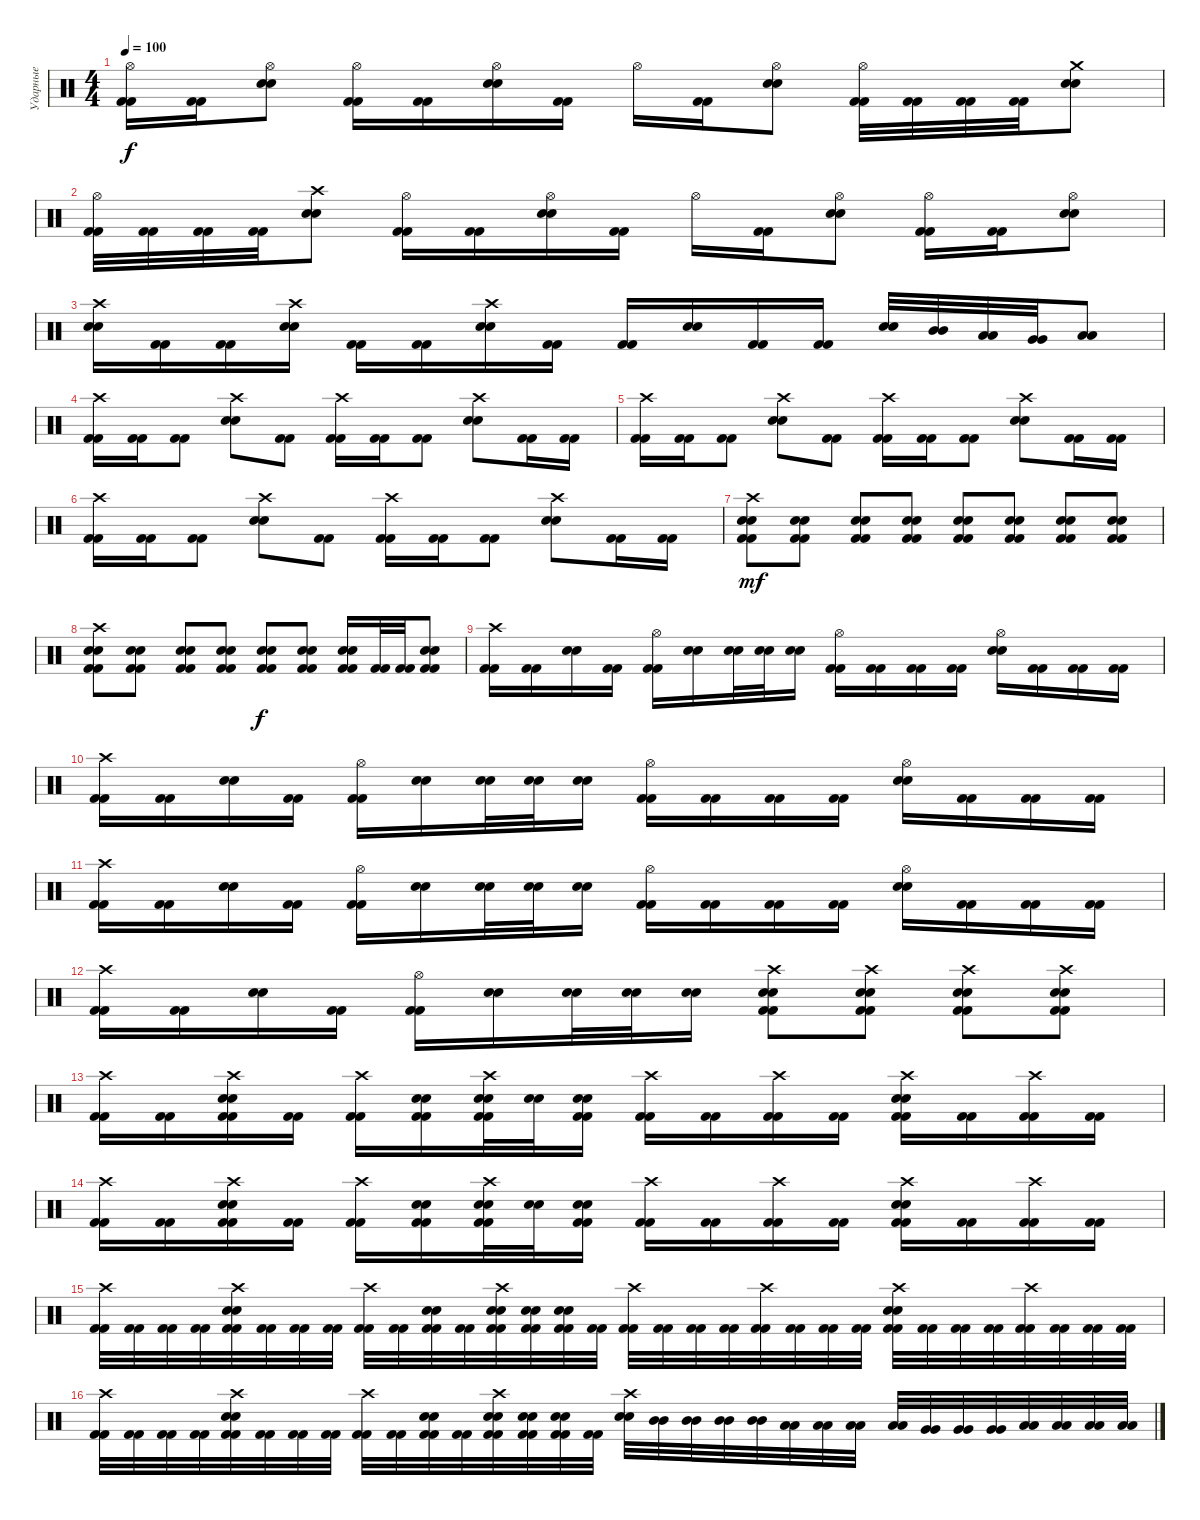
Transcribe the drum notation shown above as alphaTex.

\track ("Ударные" "Ударные") {instrument percussion}
\staff {score}
\articulation defaults
\ts (4 4)
\tempo 100
\clef neutral
\ks c
("Hi-Hat (open)" "Kick (hit) 2" "Kick (hit) 2").16{dy f} ("Kick (hit) 2" "Kick (hit) 2").16 ("Hi-Hat (open)" "Electric Snare (hit)" "Electric Snare (hit)").8 ("Hi-Hat (open)" "Kick (hit) 2" "Kick (hit) 2").16 ("Kick (hit) 2" "Kick (hit) 2").16 ("Hi-Hat (open)" "Electric Snare (hit)" "Electric Snare (hit)").16 ("Kick (hit) 2" "Kick (hit) 2").16 "Hi-Hat (open)".16 ("Kick (hit) 2" "Kick (hit) 2").16 ("Hi-Hat (open)" "Electric Snare (hit)" "Electric Snare (hit)").8 ("Hi-Hat (open)" "Kick (hit) 2" "Kick (hit) 2").32 ("Kick (hit) 2" "Kick (hit) 2").32 ("Kick (hit) 2" "Kick (hit) 2").32 ("Kick (hit) 2" "Kick (hit) 2").32 ("Crash medium (hit)" "Electric Snare (hit)" "Electric Snare (hit)").8 |
("Hi-Hat (open)" "Kick (hit) 2" "Kick (hit) 2").32 ("Kick (hit) 2" "Kick (hit) 2").32 ("Kick (hit) 2" "Kick (hit) 2").32 ("Kick (hit) 2" "Kick (hit) 2").32 ("Crash high (hit)" "Electric Snare (hit)" "Electric Snare (hit)").8 ("Hi-Hat (open)" "Kick (hit) 2" "Kick (hit) 2").16 ("Kick (hit) 2" "Kick (hit) 2").16 ("Hi-Hat (open)" "Electric Snare (hit)" "Electric Snare (hit)").16 ("Kick (hit) 2" "Kick (hit) 2").16 "Hi-Hat (open)".16 ("Kick (hit) 2" "Kick (hit) 2").16 ("Hi-Hat (open)" "Electric Snare (hit)" "Electric Snare (hit)").8 ("Hi-Hat (open)" "Kick (hit) 2" "Kick (hit) 2").16 ("Kick (hit) 2" "Kick (hit) 2").16 ("Hi-Hat (open)" "Electric Snare (hit)" "Electric Snare (hit)").8 |
("Crash high (hit)" "Electric Snare (hit)" "Electric Snare (hit)").16 ("Kick (hit) 2" "Kick (hit) 2").16 ("Kick (hit) 2" "Kick (hit) 2").16 ("Crash high (hit)" "Electric Snare (hit)" "Electric Snare (hit)").16 ("Kick (hit) 2" "Kick (hit) 2").16 ("Kick (hit) 2" "Kick (hit) 2").16 ("Crash high (hit)" "Electric Snare (hit)" "Electric Snare (hit)").16 ("Kick (hit) 2" "Kick (hit) 2").16 ("Kick (hit) 2" "Kick (hit) 2").16 ("Electric Snare (hit)" "Electric Snare (hit)").16 ("Kick (hit) 2" "Kick (hit) 2").16 ("Kick (hit) 2" "Kick (hit) 2").16 ("Electric Snare (hit)" "Electric Snare (hit)").32 ("Mid Tom (hit)" "Mid Tom (hit)").32 ("Low Tom (hit)" "Low Tom (hit)").32 ("Very Low Tom (hit)" "Very Low Tom (hit)").32 ("Low Floor Tom (hit)" "Low Floor Tom (hit)").8 |
("Crash high (hit)" "Kick (hit) 2" "Kick (hit) 2").16 ("Kick (hit) 2" "Kick (hit) 2").16 ("Kick (hit) 2" "Kick (hit) 2").8 ("Crash high (hit)" "Electric Snare (hit)" "Electric Snare (hit)").8 ("Kick (hit) 2" "Kick (hit) 2").8 ("Crash high (hit)" "Kick (hit) 2" "Kick (hit) 2").16 ("Kick (hit) 2" "Kick (hit) 2").16 ("Kick (hit) 2" "Kick (hit) 2").8 ("Crash high (hit)" "Electric Snare (hit)" "Electric Snare (hit)").8 ("Kick (hit) 2" "Kick (hit) 2").16 ("Kick (hit) 2" "Kick (hit) 2").16 |
("Crash high (hit)" "Kick (hit) 2" "Kick (hit) 2").16 ("Kick (hit) 2" "Kick (hit) 2").16 ("Kick (hit) 2" "Kick (hit) 2").8 ("Crash high (hit)" "Electric Snare (hit)" "Electric Snare (hit)").8 ("Kick (hit) 2" "Kick (hit) 2").8 ("Crash high (hit)" "Kick (hit) 2" "Kick (hit) 2").16 ("Kick (hit) 2" "Kick (hit) 2").16 ("Kick (hit) 2" "Kick (hit) 2").8 ("Crash high (hit)" "Electric Snare (hit)" "Electric Snare (hit)").8 ("Kick (hit) 2" "Kick (hit) 2").16 ("Kick (hit) 2" "Kick (hit) 2").16 |
("Crash high (hit)" "Kick (hit) 2" "Kick (hit) 2").16 ("Kick (hit) 2" "Kick (hit) 2").16 ("Kick (hit) 2" "Kick (hit) 2").8 ("Crash high (hit)" "Electric Snare (hit)" "Electric Snare (hit)").8 ("Kick (hit) 2" "Kick (hit) 2").8 ("Crash high (hit)" "Kick (hit) 2" "Kick (hit) 2").16 ("Kick (hit) 2" "Kick (hit) 2").16 ("Kick (hit) 2" "Kick (hit) 2").8 ("Crash high (hit)" "Electric Snare (hit)" "Electric Snare (hit)").8 ("Kick (hit) 2" "Kick (hit) 2").16 ("Kick (hit) 2" "Kick (hit) 2").16 |
("Crash high (hit)" "Electric Snare (hit)" "Electric Snare (hit)" "Kick (hit) 2" "Kick (hit) 2").8{dy mf} ("Electric Snare (hit)" "Electric Snare (hit)" "Kick (hit) 2" "Kick (hit) 2").8 ("Electric Snare (hit)" "Electric Snare (hit)" "Kick (hit) 2" "Kick (hit) 2").8 ("Electric Snare (hit)" "Electric Snare (hit)" "Kick (hit) 2" "Kick (hit) 2").8 ("Electric Snare (hit)" "Electric Snare (hit)" "Kick (hit) 2" "Kick (hit) 2").8 ("Electric Snare (hit)" "Electric Snare (hit)" "Kick (hit) 2" "Kick (hit) 2").8 ("Electric Snare (hit)" "Electric Snare (hit)" "Kick (hit) 2" "Kick (hit) 2").8 ("Electric Snare (hit)" "Electric Snare (hit)" "Kick (hit) 2" "Kick (hit) 2").8 |
("Crash high (hit)" "Electric Snare (hit)" "Electric Snare (hit)" "Kick (hit) 2" "Kick (hit) 2").8 ("Electric Snare (hit)" "Electric Snare (hit)" "Kick (hit) 2" "Kick (hit) 2").8 ("Electric Snare (hit)" "Electric Snare (hit)" "Kick (hit) 2" "Kick (hit) 2").8 ("Electric Snare (hit)" "Electric Snare (hit)" "Kick (hit) 2" "Kick (hit) 2").8 ("Electric Snare (hit)" "Electric Snare (hit)" "Kick (hit) 2" "Kick (hit) 2").8{dy f} ("Electric Snare (hit)" "Electric Snare (hit)" "Kick (hit) 2" "Kick (hit) 2").8 ("Electric Snare (hit)" "Electric Snare (hit)" "Kick (hit) 2" "Kick (hit) 2").16 ("Kick (hit) 2" "Kick (hit) 2").32 ("Kick (hit) 2" "Kick (hit) 2").32 ("Electric Snare (hit)" "Electric Snare (hit)" "Kick (hit) 2" "Kick (hit) 2").8 |
("Crash high (hit)" "Kick (hit) 2" "Kick (hit) 2").16 ("Kick (hit) 2" "Kick (hit) 2").16 ("Electric Snare (hit)" "Electric Snare (hit)").16 ("Kick (hit) 2" "Kick (hit) 2").16 ("Hi-Hat (open)" "Kick (hit) 2" "Kick (hit) 2").16 ("Electric Snare (hit)" "Electric Snare (hit)").16 ("Electric Snare (hit)" "Electric Snare (hit)").32 ("Electric Snare (hit)" "Electric Snare (hit)").32 ("Electric Snare (hit)" "Electric Snare (hit)").16 ("Hi-Hat (open)" "Kick (hit) 2" "Kick (hit) 2").16 ("Kick (hit) 2" "Kick (hit) 2").16 ("Kick (hit) 2" "Kick (hit) 2").16 ("Kick (hit) 2" "Kick (hit) 2").16 ("Hi-Hat (open)" "Electric Snare (hit)" "Electric Snare (hit)").16 ("Kick (hit) 2" "Kick (hit) 2").16 ("Kick (hit) 2" "Kick (hit) 2").16 ("Kick (hit) 2" "Kick (hit) 2").16 |
("Crash high (hit)" "Kick (hit) 2" "Kick (hit) 2").16 ("Kick (hit) 2" "Kick (hit) 2").16 ("Electric Snare (hit)" "Electric Snare (hit)").16 ("Kick (hit) 2" "Kick (hit) 2").16 ("Hi-Hat (open)" "Kick (hit) 2" "Kick (hit) 2").16 ("Electric Snare (hit)" "Electric Snare (hit)").16 ("Electric Snare (hit)" "Electric Snare (hit)").32 ("Electric Snare (hit)" "Electric Snare (hit)").32 ("Electric Snare (hit)" "Electric Snare (hit)").16 ("Hi-Hat (open)" "Kick (hit) 2" "Kick (hit) 2").16 ("Kick (hit) 2" "Kick (hit) 2").16 ("Kick (hit) 2" "Kick (hit) 2").16 ("Kick (hit) 2" "Kick (hit) 2").16 ("Hi-Hat (open)" "Electric Snare (hit)" "Electric Snare (hit)").16 ("Kick (hit) 2" "Kick (hit) 2").16 ("Kick (hit) 2" "Kick (hit) 2").16 ("Kick (hit) 2" "Kick (hit) 2").16 |
("Crash high (hit)" "Kick (hit) 2" "Kick (hit) 2").16 ("Kick (hit) 2" "Kick (hit) 2").16 ("Electric Snare (hit)" "Electric Snare (hit)").16 ("Kick (hit) 2" "Kick (hit) 2").16 ("Hi-Hat (open)" "Kick (hit) 2" "Kick (hit) 2").16 ("Electric Snare (hit)" "Electric Snare (hit)").16 ("Electric Snare (hit)" "Electric Snare (hit)").32 ("Electric Snare (hit)" "Electric Snare (hit)").32 ("Electric Snare (hit)" "Electric Snare (hit)").16 ("Hi-Hat (open)" "Kick (hit) 2" "Kick (hit) 2").16 ("Kick (hit) 2" "Kick (hit) 2").16 ("Kick (hit) 2" "Kick (hit) 2").16 ("Kick (hit) 2" "Kick (hit) 2").16 ("Hi-Hat (open)" "Electric Snare (hit)" "Electric Snare (hit)").16 ("Kick (hit) 2" "Kick (hit) 2").16 ("Kick (hit) 2" "Kick (hit) 2").16 ("Kick (hit) 2" "Kick (hit) 2").16 |
("Crash high (hit)" "Kick (hit) 2" "Kick (hit) 2").16 ("Kick (hit) 2" "Kick (hit) 2").16 ("Electric Snare (hit)" "Electric Snare (hit)").16 ("Kick (hit) 2" "Kick (hit) 2").16 ("Hi-Hat (open)" "Kick (hit) 2" "Kick (hit) 2").16 ("Electric Snare (hit)" "Electric Snare (hit)").16 ("Electric Snare (hit)" "Electric Snare (hit)").32 ("Electric Snare (hit)" "Electric Snare (hit)").32 ("Electric Snare (hit)" "Electric Snare (hit)").16 ("Crash high (hit)" "Electric Snare (hit)" "Electric Snare (hit)" "Kick (hit) 2" "Kick (hit) 2").8 ("Crash high (hit)" "Electric Snare (hit)" "Electric Snare (hit)" "Kick (hit) 2" "Kick (hit) 2").8 ("Crash high (hit)" "Electric Snare (hit)" "Electric Snare (hit)" "Kick (hit) 2" "Kick (hit) 2").8 ("Crash high (hit)" "Electric Snare (hit)" "Electric Snare (hit)" "Kick (hit) 2" "Kick (hit) 2").8 |
("Crash high (hit)" "Kick (hit) 2" "Kick (hit) 2").16 ("Kick (hit) 2" "Kick (hit) 2").16 ("Crash high (hit)" "Electric Snare (hit)" "Electric Snare (hit)" "Kick (hit) 2" "Kick (hit) 2").16 ("Kick (hit) 2" "Kick (hit) 2").16 ("Crash high (hit)" "Kick (hit) 2" "Kick (hit) 2").16 ("Electric Snare (hit)" "Electric Snare (hit)" "Kick (hit) 2" "Kick (hit) 2").16 ("Crash high (hit)" "Electric Snare (hit)" "Electric Snare (hit)" "Kick (hit) 2" "Kick (hit) 2").32 ("Electric Snare (hit)" "Electric Snare (hit)").32 ("Electric Snare (hit)" "Electric Snare (hit)" "Kick (hit) 2" "Kick (hit) 2").16 ("Crash high (hit)" "Kick (hit) 2" "Kick (hit) 2").16 ("Kick (hit) 2" "Kick (hit) 2").16 ("Crash high (hit)" "Kick (hit) 2" "Kick (hit) 2").16 ("Kick (hit) 2" "Kick (hit) 2").16 ("Crash high (hit)" "Electric Snare (hit)" "Electric Snare (hit)" "Kick (hit) 2" "Kick (hit) 2").16 ("Kick (hit) 2" "Kick (hit) 2").16 ("Crash high (hit)" "Kick (hit) 2" "Kick (hit) 2").16 ("Kick (hit) 2" "Kick (hit) 2").16 |
("Crash high (hit)" "Kick (hit) 2" "Kick (hit) 2").16 ("Kick (hit) 2" "Kick (hit) 2").16 ("Crash high (hit)" "Electric Snare (hit)" "Electric Snare (hit)" "Kick (hit) 2" "Kick (hit) 2").16 ("Kick (hit) 2" "Kick (hit) 2").16 ("Crash high (hit)" "Kick (hit) 2" "Kick (hit) 2").16 ("Electric Snare (hit)" "Electric Snare (hit)" "Kick (hit) 2" "Kick (hit) 2").16 ("Crash high (hit)" "Electric Snare (hit)" "Electric Snare (hit)" "Kick (hit) 2" "Kick (hit) 2").32 ("Electric Snare (hit)" "Electric Snare (hit)").32 ("Electric Snare (hit)" "Electric Snare (hit)" "Kick (hit) 2" "Kick (hit) 2").16 ("Crash high (hit)" "Kick (hit) 2" "Kick (hit) 2").16 ("Kick (hit) 2" "Kick (hit) 2").16 ("Crash high (hit)" "Kick (hit) 2" "Kick (hit) 2").16 ("Kick (hit) 2" "Kick (hit) 2").16 ("Crash high (hit)" "Electric Snare (hit)" "Electric Snare (hit)" "Kick (hit) 2" "Kick (hit) 2").16 ("Kick (hit) 2" "Kick (hit) 2").16 ("Crash high (hit)" "Kick (hit) 2" "Kick (hit) 2").16 ("Kick (hit) 2" "Kick (hit) 2").16 |
("Crash high (hit)" "Kick (hit) 2" "Kick (hit) 2").32 ("Kick (hit) 2" "Kick (hit) 2").32 ("Kick (hit) 2" "Kick (hit) 2").32 ("Kick (hit) 2" "Kick (hit) 2").32 ("Crash high (hit)" "Electric Snare (hit)" "Electric Snare (hit)" "Kick (hit) 2" "Kick (hit) 2").32 ("Kick (hit) 2" "Kick (hit) 2").32 ("Kick (hit) 2" "Kick (hit) 2").32 ("Kick (hit) 2" "Kick (hit) 2").32 ("Crash high (hit)" "Kick (hit) 2" "Kick (hit) 2").32 ("Kick (hit) 2" "Kick (hit) 2").32 ("Electric Snare (hit)" "Electric Snare (hit)" "Kick (hit) 2" "Kick (hit) 2").32 ("Kick (hit) 2" "Kick (hit) 2").32 ("Crash high (hit)" "Electric Snare (hit)" "Electric Snare (hit)" "Kick (hit) 2" "Kick (hit) 2").32 ("Electric Snare (hit)" "Electric Snare (hit)" "Kick (hit) 2" "Kick (hit) 2").32 ("Electric Snare (hit)" "Electric Snare (hit)" "Kick (hit) 2" "Kick (hit) 2").32 ("Kick (hit) 2" "Kick (hit) 2").32 ("Crash high (hit)" "Kick (hit) 2" "Kick (hit) 2").32 ("Kick (hit) 2" "Kick (hit) 2").32 ("Kick (hit) 2" "Kick (hit) 2").32 ("Kick (hit) 2" "Kick (hit) 2").32 ("Crash high (hit)" "Kick (hit) 2" "Kick (hit) 2").32 ("Kick (hit) 2" "Kick (hit) 2").32 ("Kick (hit) 2" "Kick (hit) 2").32 ("Kick (hit) 2" "Kick (hit) 2").32 ("Crash high (hit)" "Electric Snare (hit)" "Electric Snare (hit)" "Kick (hit) 2" "Kick (hit) 2").32 ("Kick (hit) 2" "Kick (hit) 2").32 ("Kick (hit) 2" "Kick (hit) 2").32 ("Kick (hit) 2" "Kick (hit) 2").32 ("Crash high (hit)" "Kick (hit) 2" "Kick (hit) 2").32 ("Kick (hit) 2" "Kick (hit) 2").32 ("Kick (hit) 2" "Kick (hit) 2").32 ("Kick (hit) 2" "Kick (hit) 2").32 |
("Crash high (hit)" "Kick (hit) 2" "Kick (hit) 2").32 ("Kick (hit) 2" "Kick (hit) 2").32 ("Kick (hit) 2" "Kick (hit) 2").32 ("Kick (hit) 2" "Kick (hit) 2").32 ("Crash high (hit)" "Electric Snare (hit)" "Electric Snare (hit)" "Kick (hit) 2" "Kick (hit) 2").32 ("Kick (hit) 2" "Kick (hit) 2").32 ("Kick (hit) 2" "Kick (hit) 2").32 ("Kick (hit) 2" "Kick (hit) 2").32 ("Crash high (hit)" "Kick (hit) 2" "Kick (hit) 2").32 ("Kick (hit) 2" "Kick (hit) 2").32 ("Electric Snare (hit)" "Electric Snare (hit)" "Kick (hit) 2" "Kick (hit) 2").32 ("Kick (hit) 2" "Kick (hit) 2").32 ("Crash high (hit)" "Electric Snare (hit)" "Electric Snare (hit)" "Kick (hit) 2" "Kick (hit) 2").32 ("Electric Snare (hit)" "Electric Snare (hit)" "Kick (hit) 2" "Kick (hit) 2").32 ("Electric Snare (hit)" "Electric Snare (hit)" "Kick (hit) 2" "Kick (hit) 2").32 ("Kick (hit) 2" "Kick (hit) 2").32 ("Crash high (hit)" "Electric Snare (hit)" "Electric Snare (hit)").32 ("Mid Tom (hit)" "Mid Tom (hit)").32 ("Mid Tom (hit)" "Mid Tom (hit)").32 ("Mid Tom (hit)" "Mid Tom (hit)").32 ("Mid Tom (hit)" "Mid Tom (hit)").32 ("Low Tom (hit)" "Low Tom (hit)").32 ("Low Tom (hit)" "Low Tom (hit)").32 ("Low Tom (hit)" "Low Tom (hit)").32 ("Low Tom (hit)" "Low Tom (hit)").32 ("Very Low Tom (hit)" "Very Low Tom (hit)").32 ("Very Low Tom (hit)" "Very Low Tom (hit)").32 ("Very Low Tom (hit)" "Very Low Tom (hit)").32 ("Low Floor Tom (hit)" "Low Floor Tom (hit)").32 ("Low Floor Tom (hit)" "Low Floor Tom (hit)").32 ("Low Floor Tom (hit)" "Low Floor Tom (hit)").32 ("Low Floor Tom (hit)" "Low Floor Tom (hit)").32
